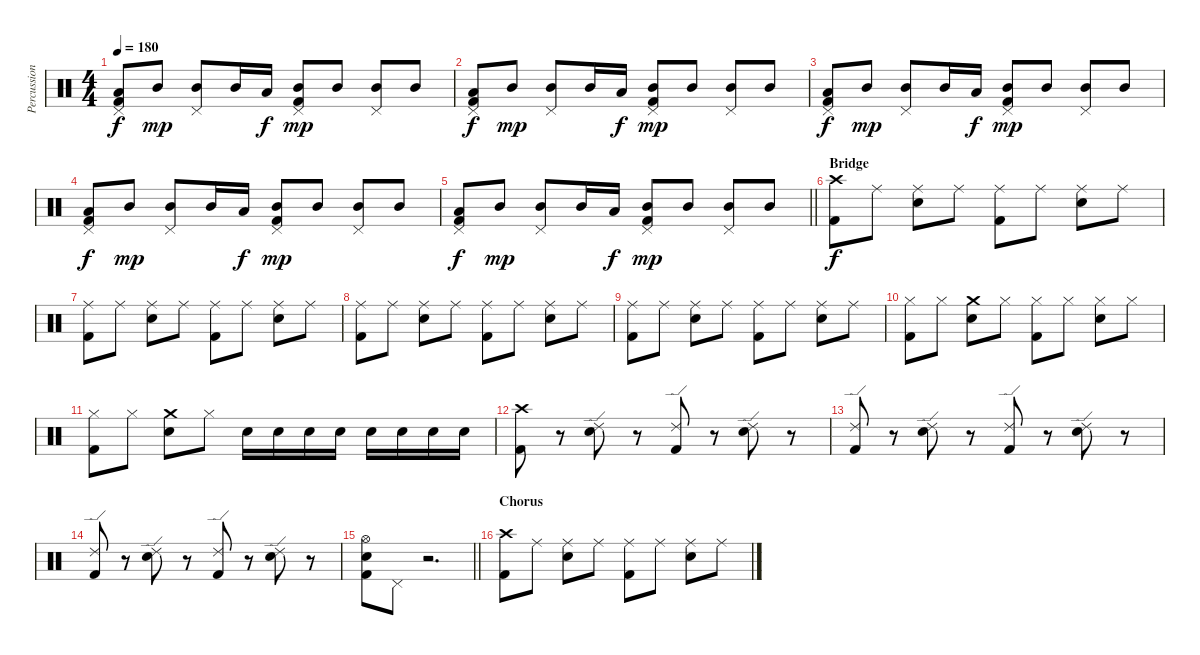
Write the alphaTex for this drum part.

\track ("Percussion" "Percussion") {instrument percussion}
\staff {score}
\articulation defaults
\ts (4 4)
\tempo 180
\clef neutral
\ks c
("Pedal Hi-Hat (hit)" "Low Floor Tom (hit)" "Kick (hit) 2").8{dy f} "Mid Tom (hit)".8{dy mp} ("Pedal Hi-Hat (hit)" "Mid Tom (hit)").8 "Mid Tom (hit)".16 "Low Floor Tom (hit)".16{dy f} ("Pedal Hi-Hat (hit)" "Mid Tom (hit)" "Kick (hit) 2").8{dy mp} "Mid Tom (hit)".8 ("Pedal Hi-Hat (hit)" "Mid Tom (hit)").8 "Mid Tom (hit)".8 |
("Pedal Hi-Hat (hit)" "Low Floor Tom (hit)" "Kick (hit) 2").8{dy f} "Mid Tom (hit)".8{dy mp} ("Pedal Hi-Hat (hit)" "Mid Tom (hit)").8 "Mid Tom (hit)".16 "Low Floor Tom (hit)".16{dy f} ("Pedal Hi-Hat (hit)" "Mid Tom (hit)" "Kick (hit) 2").8{dy mp} "Mid Tom (hit)".8 ("Pedal Hi-Hat (hit)" "Mid Tom (hit)").8 "Mid Tom (hit)".8 |
("Pedal Hi-Hat (hit)" "Low Floor Tom (hit)" "Kick (hit) 2").8{dy f} "Mid Tom (hit)".8{dy mp} ("Pedal Hi-Hat (hit)" "Mid Tom (hit)").8 "Mid Tom (hit)".16 "Low Floor Tom (hit)".16{dy f} ("Pedal Hi-Hat (hit)" "Mid Tom (hit)" "Kick (hit) 2").8{dy mp} "Mid Tom (hit)".8 ("Pedal Hi-Hat (hit)" "Mid Tom (hit)").8 "Mid Tom (hit)".8 |
("Pedal Hi-Hat (hit)" "Low Floor Tom (hit)" "Kick (hit) 2").8{dy f} "Mid Tom (hit)".8{dy mp} ("Pedal Hi-Hat (hit)" "Mid Tom (hit)").8 "Mid Tom (hit)".16 "Low Floor Tom (hit)".16{dy f} ("Pedal Hi-Hat (hit)" "Mid Tom (hit)" "Kick (hit) 2").8{dy mp} "Mid Tom (hit)".8 ("Pedal Hi-Hat (hit)" "Mid Tom (hit)").8 "Mid Tom (hit)".8 |
\barLineRight lightlight
("Pedal Hi-Hat (hit)" "Low Floor Tom (hit)" "Kick (hit) 2").8{dy f} "Mid Tom (hit)".8{dy mp} ("Pedal Hi-Hat (hit)" "Mid Tom (hit)").8 "Mid Tom (hit)".16 "Low Floor Tom (hit)".16{dy f} ("Pedal Hi-Hat (hit)" "Mid Tom (hit)" "Kick (hit) 2").8{dy mp} "Mid Tom (hit)".8 ("Pedal Hi-Hat (hit)" "Mid Tom (hit)").8 "Mid Tom (hit)".8 |
\section ("" "Bridge")
("Crash high (hit)" "Kick (hit) 2").8{dy f} "Ride (middle)".8 ("Ride (middle)" "Snare (hit) 2").8 "Ride (middle)".8 ("Ride (middle)" "Kick (hit) 2").8 "Ride (middle)".8 ("Ride (middle)" "Snare (hit) 2").8 "Ride (middle)".8 |
("Ride (middle)" "Kick (hit) 2").8 "Ride (middle)".8 ("Ride (middle)" "Snare (hit) 2").8 "Ride (middle)".8 ("Ride (middle)" "Kick (hit) 2").8 "Ride (middle)".8 ("Ride (middle)" "Snare (hit) 2").8 "Ride (middle)".8 |
("Ride (middle)" "Kick (hit) 2").8 "Ride (middle)".8 ("Ride (middle)" "Snare (hit) 2").8 "Ride (middle)".8 ("Ride (middle)" "Kick (hit) 2").8 "Ride (middle)".8 ("Ride (middle)" "Snare (hit) 2").8 "Ride (middle)".8 |
("Ride (middle)" "Kick (hit) 2").8 "Ride (middle)".8 ("Ride (middle)" "Snare (hit) 2").8 "Ride (middle)".8 ("Ride (middle)" "Kick (hit) 2").8 "Ride (middle)".8 ("Ride (middle)" "Snare (hit) 2").8 "Ride (middle)".8 |
("Hi-Hat (closed)" "Kick (hit) 2").8 "Hi-Hat (closed)".8 ("Crash medium (hit)" "Snare (hit) 2").8 "Hi-Hat (closed)".8 ("Hi-Hat (closed)" "Kick (hit) 2").8 "Hi-Hat (closed)".8 ("Hi-Hat (closed)" "Snare (hit) 2").8 "Hi-Hat (closed)".8 |
("Hi-Hat (closed)" "Kick (hit) 2").8 "Hi-Hat (closed)".8 ("Crash medium (hit)" "Snare (hit) 2").8 "Hi-Hat (closed)".8 "Snare (hit) 2".16 "Snare (hit) 2".16 "Snare (hit) 2".16 "Snare (hit) 2".16 "Snare (hit) 2".16 "Snare (hit) 2".16 "Snare (hit) 2".16 "Snare (hit) 2".16 |
("Crash high (hit)" "Kick (hit) 2").8 r.8 ("Ride (edge) 2" "Snare (hit) 2").8 r.8 ("Ride (edge) 2" "Kick (hit) 2").8 r.8 ("Ride (edge) 2" "Snare (hit) 2").8 r.8 |
("Ride (edge) 2" "Kick (hit) 2").8 r.8 ("Ride (edge) 2" "Snare (hit) 2").8 r.8 ("Ride (edge) 2" "Kick (hit) 2").8 r.8 ("Ride (edge) 2" "Snare (hit) 2").8 r.8 |
("Ride (edge) 2" "Kick (hit) 2").8 r.8 ("Ride (edge) 2" "Snare (hit) 2").8 r.8 ("Ride (edge) 2" "Kick (hit) 2").8 r.8 ("Ride (edge) 2" "Snare (hit) 2").8 r.8 |
\barLineRight lightlight
("Hi-Hat (open)" "Snare (hit) 2" "Kick (hit) 2").8 "Pedal Hi-Hat (hit)".8 r.2{d} |
\section ("" "Chorus")
("Crash high (hit)" "Kick (hit) 2").8 "Ride (middle)".8 ("Ride (middle)" "Snare (hit) 2").8 "Ride (middle)".8 ("Ride (middle)" "Kick (hit) 2").8 "Ride (middle)".8 ("Ride (middle)" "Snare (hit) 2").8 "Ride (middle)".8
